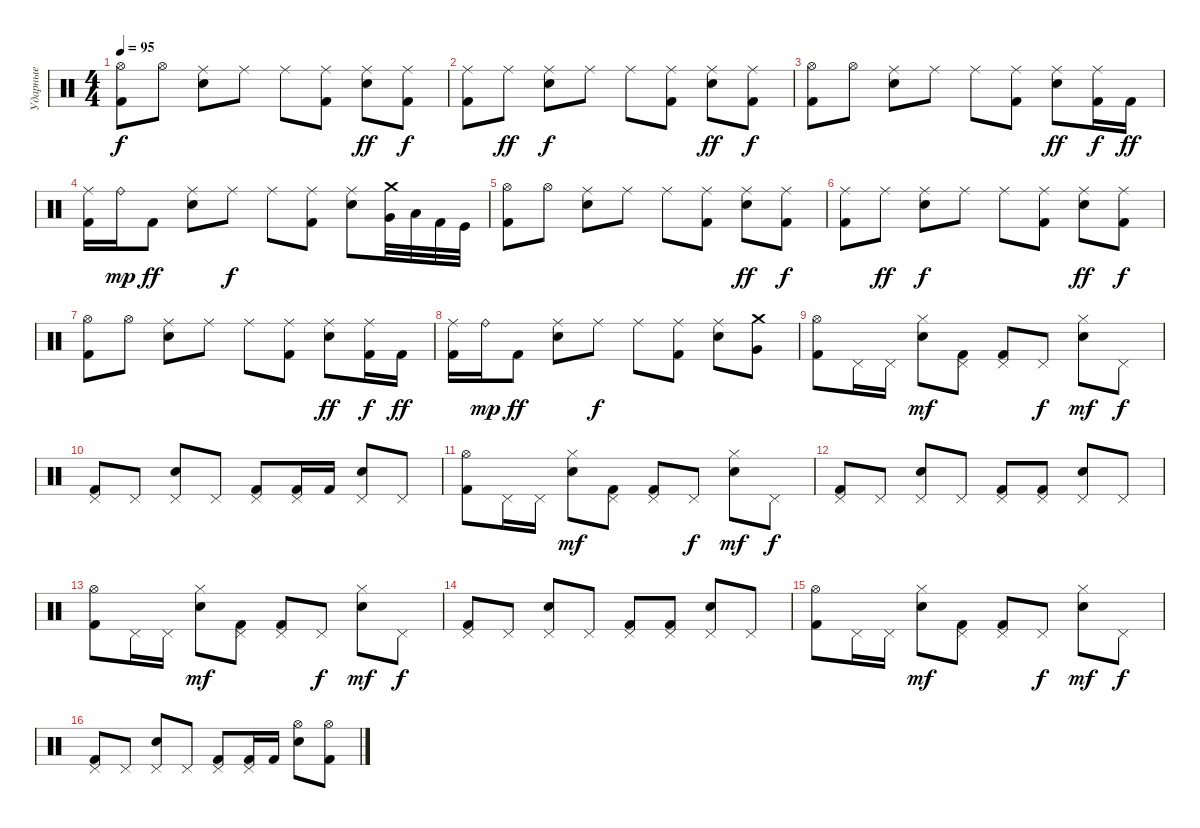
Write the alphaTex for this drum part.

\track ("Ударные" "Ударные") {instrument percussion}
\staff {score}
\articulation defaults
\ts (4 4)
\tempo 95
\clef neutral
\ks c
("Kick (hit) 2" "Hi-Hat (open)").8{dy f} "Hi-Hat (open)".8 ("Ride (middle)" "Electric Snare (hit)").8 "Ride (middle)".8 "Ride (middle)".8 ("Kick (hit) 2" "Ride (middle)").8 ("Electric Snare (hit)" "Ride (middle)").8{dy ff} ("Kick (hit) 2" "Ride (middle)").8{dy f} |
("Kick (hit) 2" "Ride (middle)").8 "Ride (middle)".8{dy ff} ("Ride (middle)" "Electric Snare (hit)").8{dy f} "Ride (middle)".8 "Ride (middle)".8 ("Kick (hit) 2" "Ride (middle)").8 ("Electric Snare (hit)" "Ride (middle)").8{dy ff} ("Kick (hit) 2" "Ride (middle)").8{dy f} |
("Kick (hit) 2" "Hi-Hat (open)").8 "Hi-Hat (open)".8 ("Ride (middle)" "Electric Snare (hit)").8 "Ride (middle)".8 "Ride (middle)".8 ("Kick (hit) 2" "Ride (middle)").8 ("Electric Snare (hit)" "Ride (middle)").8{dy ff} ("Kick (hit) 2" "Ride (middle)").16{dy f} "Kick (hit) 2".16{dy ff} |
("Kick (hit) 2" "Ride (middle)").16 "Ride (bell)".16{dy mp} "Kick (hit) 2".8{dy ff} ("Electric Snare (hit)" "Ride (middle)").8 "Ride (middle)".8{dy f} "Ride (middle)".8 ("Kick (hit) 2" "Ride (middle)").8 ("Electric Snare (hit)" "Ride (middle)").8 ("Very Low Tom (hit)" "Crash medium (hit)").32 "Low Floor Tom (hit)".32 "Kick (hit) 2".32 "Kick (hit)".32 |
("Kick (hit) 2" "Hi-Hat (open)").8 "Hi-Hat (open)".8 ("Ride (middle)" "Electric Snare (hit)").8 "Ride (middle)".8 "Ride (middle)".8 ("Kick (hit) 2" "Ride (middle)").8 ("Electric Snare (hit)" "Ride (middle)").8{dy ff} ("Kick (hit) 2" "Ride (middle)").8{dy f} |
("Kick (hit) 2" "Ride (middle)").8 "Ride (middle)".8{dy ff} ("Ride (middle)" "Electric Snare (hit)").8{dy f} "Ride (middle)".8 "Ride (middle)".8 ("Kick (hit) 2" "Ride (middle)").8 ("Electric Snare (hit)" "Ride (middle)").8{dy ff} ("Kick (hit) 2" "Ride (middle)").8{dy f} |
("Kick (hit) 2" "Hi-Hat (open)").8 "Hi-Hat (open)".8 ("Ride (middle)" "Electric Snare (hit)").8 "Ride (middle)".8 "Ride (middle)".8 ("Kick (hit) 2" "Ride (middle)").8 ("Electric Snare (hit)" "Ride (middle)").8{dy ff} ("Kick (hit) 2" "Ride (middle)").16{dy f} "Kick (hit) 2".16{dy ff} |
("Kick (hit) 2" "Ride (middle)").16 "Ride (bell)".16{dy mp} "Kick (hit) 2".8{dy ff} ("Electric Snare (hit)" "Ride (middle)").8 "Ride (middle)".8{dy f} "Ride (middle)".8 ("Kick (hit) 2" "Ride (middle)").8 ("Electric Snare (hit)" "Ride (middle)").8 ("Very Low Tom (hit)" "Crash medium (hit)").8 |
("Kick (hit) 2" "Hi-Hat (open)").8 "Pedal Hi-Hat (hit)".16 "Pedal Hi-Hat (hit)".16 ("Hi-Hat (closed)" "Electric Snare (hit)").8{dy mf} ("Pedal Hi-Hat (hit)" "Kick (hit) 2").8 ("Pedal Hi-Hat (hit)" "Kick (hit) 2").8 "Pedal Hi-Hat (hit)".8{dy f} ("Hi-Hat (closed)" "Electric Snare (hit)").8{dy mf} "Pedal Hi-Hat (hit)".8{dy f} |
("Pedal Hi-Hat (hit)" "Kick (hit) 2").8 "Pedal Hi-Hat (hit)".8 ("Pedal Hi-Hat (hit)" "Electric Snare (hit)").8 "Pedal Hi-Hat (hit)".8 ("Pedal Hi-Hat (hit)" "Kick (hit) 2").8 ("Pedal Hi-Hat (hit)" "Kick (hit) 2").16 "Kick (hit) 2".16 ("Pedal Hi-Hat (hit)" "Electric Snare (hit)").8 "Pedal Hi-Hat (hit)".8 |
("Kick (hit) 2" "Hi-Hat (open)").8 "Pedal Hi-Hat (hit)".16 "Pedal Hi-Hat (hit)".16 ("Hi-Hat (closed)" "Electric Snare (hit)").8{dy mf} ("Pedal Hi-Hat (hit)" "Kick (hit) 2").8 ("Pedal Hi-Hat (hit)" "Kick (hit) 2").8 "Pedal Hi-Hat (hit)".8{dy f} ("Hi-Hat (closed)" "Electric Snare (hit)").8{dy mf} "Pedal Hi-Hat (hit)".8{dy f} |
("Pedal Hi-Hat (hit)" "Kick (hit) 2").8 "Pedal Hi-Hat (hit)".8 ("Pedal Hi-Hat (hit)" "Electric Snare (hit)").8 "Pedal Hi-Hat (hit)".8 ("Pedal Hi-Hat (hit)" "Kick (hit) 2").8 ("Pedal Hi-Hat (hit)" "Kick (hit) 2").8 ("Pedal Hi-Hat (hit)" "Electric Snare (hit)").8 "Pedal Hi-Hat (hit)".8 |
("Kick (hit) 2" "Hi-Hat (open)").8 "Pedal Hi-Hat (hit)".16 "Pedal Hi-Hat (hit)".16 ("Hi-Hat (closed)" "Electric Snare (hit)").8{dy mf} ("Pedal Hi-Hat (hit)" "Kick (hit) 2").8 ("Pedal Hi-Hat (hit)" "Kick (hit) 2").8 "Pedal Hi-Hat (hit)".8{dy f} ("Hi-Hat (closed)" "Electric Snare (hit)").8{dy mf} "Pedal Hi-Hat (hit)".8{dy f} |
("Pedal Hi-Hat (hit)" "Kick (hit) 2").8 "Pedal Hi-Hat (hit)".8 ("Pedal Hi-Hat (hit)" "Electric Snare (hit)").8 "Pedal Hi-Hat (hit)".8 ("Pedal Hi-Hat (hit)" "Kick (hit) 2").8 ("Pedal Hi-Hat (hit)" "Kick (hit) 2").8 ("Pedal Hi-Hat (hit)" "Electric Snare (hit)").8 "Pedal Hi-Hat (hit)".8 |
("Kick (hit) 2" "Hi-Hat (open)").8 "Pedal Hi-Hat (hit)".16 "Pedal Hi-Hat (hit)".16 ("Hi-Hat (closed)" "Electric Snare (hit)").8{dy mf} ("Pedal Hi-Hat (hit)" "Kick (hit) 2").8 ("Pedal Hi-Hat (hit)" "Kick (hit) 2").8 "Pedal Hi-Hat (hit)".8{dy f} ("Hi-Hat (closed)" "Electric Snare (hit)").8{dy mf} "Pedal Hi-Hat (hit)".8{dy f} |
("Pedal Hi-Hat (hit)" "Kick (hit) 2").8 "Pedal Hi-Hat (hit)".8 ("Pedal Hi-Hat (hit)" "Electric Snare (hit)").8 "Pedal Hi-Hat (hit)".8 ("Pedal Hi-Hat (hit)" "Kick (hit) 2").8 ("Pedal Hi-Hat (hit)" "Kick (hit) 2").16 "Kick (hit) 2".16 ("Hi-Hat (open)" "Electric Snare (hit)").8 ("Hi-Hat (open)" "Kick (hit) 2").8
